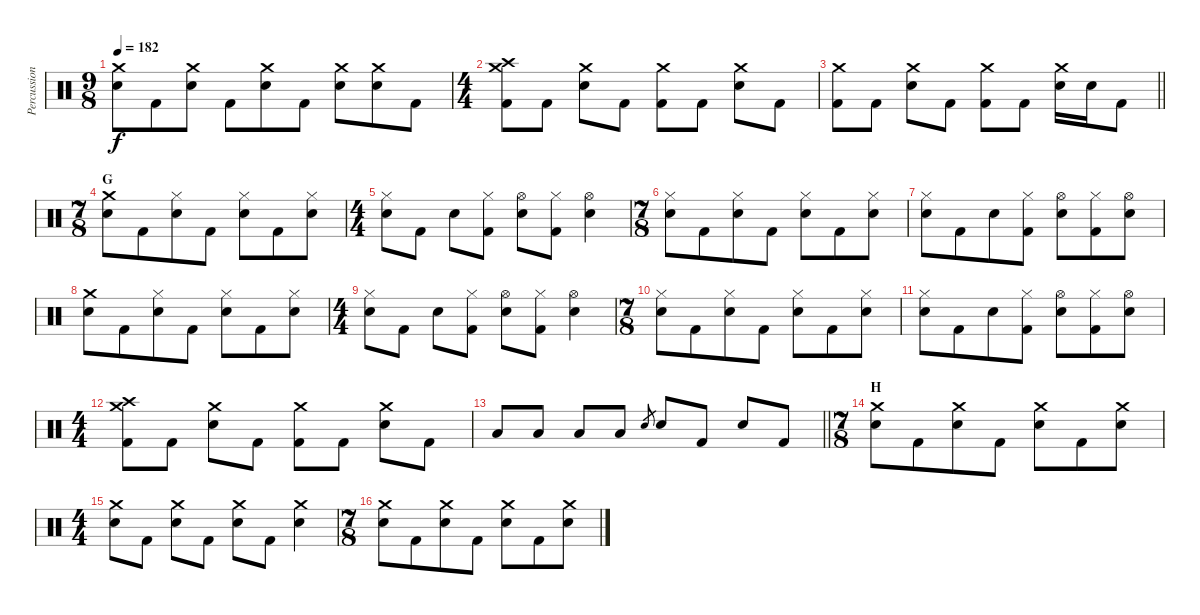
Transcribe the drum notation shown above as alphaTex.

\track ("Percussion" "Percussion") {instrument percussion}
\staff {score}
\articulation defaults
\ts (9 8)
\tempo 182
\clef neutral
\ks c
("Crash medium (hit)" "Electric Snare (hit)").8{dy f} "Kick (hit) 2".8 ("Crash medium (hit)" "Electric Snare (hit)").8 "Kick (hit) 2".8 ("Crash medium (hit)" "Electric Snare (hit)").8 "Kick (hit) 2".8 ("Crash medium (hit)" "Electric Snare (hit)").8 ("Crash medium (hit)" "Electric Snare (hit)").8 "Kick (hit) 2".8 |
\ts (4 4)
("Crash medium (hit)" "Crash high (hit)" "Kick (hit) 2").8 "Kick (hit) 2".8 ("Crash medium (hit)" "Electric Snare (hit)").8 "Kick (hit) 2".8 ("Crash medium (hit)" "Kick (hit) 2").8 "Kick (hit) 2".8 ("Crash medium (hit)" "Electric Snare (hit)").8 "Kick (hit) 2".8 |
\barLineRight lightlight
("Crash medium (hit)" "Kick (hit) 2").8 "Kick (hit) 2".8 ("Crash medium (hit)" "Electric Snare (hit)").8 "Kick (hit) 2".8 ("Crash medium (hit)" "Kick (hit) 2").8 "Kick (hit) 2".8 ("Crash medium (hit)" "Electric Snare (hit)").16 "Electric Snare (hit)".16 "Kick (hit) 2".8 |
\ts (7 8)
\section ("" "G")
("Crash medium (hit)" "Electric Snare (hit)").8 "Kick (hit) 2".8 ("Hi-Hat (closed)" "Electric Snare (hit)").8 "Kick (hit) 2".8 ("Hi-Hat (closed)" "Electric Snare (hit)").8 "Kick (hit) 2".8 ("Hi-Hat (closed)" "Electric Snare (hit)").8 |
\ts (4 4)
("Hi-Hat (closed)" "Electric Snare (hit)").8 "Kick (hit) 2".8 "Electric Snare (hit)".8 ("Hi-Hat (closed)" "Kick (hit) 2").8 ("Hi-Hat (open)" "Electric Snare (hit)").8 ("Hi-Hat (closed)" "Kick (hit) 2").8 ("Hi-Hat (open)" "Electric Snare (hit)").4 |
\ts (7 8)
("Hi-Hat (closed)" "Electric Snare (hit)").8 "Kick (hit) 2".8 ("Hi-Hat (closed)" "Electric Snare (hit)").8 "Kick (hit) 2".8 ("Hi-Hat (closed)" "Electric Snare (hit)").8 "Kick (hit) 2".8 ("Hi-Hat (closed)" "Electric Snare (hit)").8 |
("Hi-Hat (closed)" "Electric Snare (hit)").8 "Kick (hit) 2".8 "Electric Snare (hit)".8 ("Hi-Hat (closed)" "Kick (hit) 2").8 ("Hi-Hat (open)" "Electric Snare (hit)").8 ("Hi-Hat (closed)" "Kick (hit) 2").8 ("Hi-Hat (open)" "Electric Snare (hit)").8 |
("Crash medium (hit)" "Electric Snare (hit)").8 "Kick (hit) 2".8 ("Hi-Hat (closed)" "Electric Snare (hit)").8 "Kick (hit) 2".8 ("Hi-Hat (closed)" "Electric Snare (hit)").8 "Kick (hit) 2".8 ("Hi-Hat (closed)" "Electric Snare (hit)").8 |
\ts (4 4)
("Hi-Hat (closed)" "Electric Snare (hit)").8 "Kick (hit) 2".8 "Electric Snare (hit)".8 ("Hi-Hat (closed)" "Kick (hit) 2").8 ("Hi-Hat (open)" "Electric Snare (hit)").8 ("Hi-Hat (closed)" "Kick (hit) 2").8 ("Hi-Hat (open)" "Electric Snare (hit)").4 |
\ts (7 8)
("Hi-Hat (closed)" "Electric Snare (hit)").8 "Kick (hit) 2".8 ("Hi-Hat (closed)" "Electric Snare (hit)").8 "Kick (hit) 2".8 ("Hi-Hat (closed)" "Electric Snare (hit)").8 "Kick (hit) 2".8 ("Hi-Hat (closed)" "Electric Snare (hit)").8 |
("Hi-Hat (closed)" "Electric Snare (hit)").8 "Kick (hit) 2".8 "Electric Snare (hit)".8 ("Hi-Hat (closed)" "Kick (hit) 2").8 ("Hi-Hat (open)" "Electric Snare (hit)").8 ("Hi-Hat (closed)" "Kick (hit) 2").8 ("Hi-Hat (open)" "Electric Snare (hit)").8 |
\ts (4 4)
("Crash medium (hit)" "Crash high (hit)" "Kick (hit) 2").8 "Kick (hit) 2".8 ("Crash medium (hit)" "Electric Snare (hit)").8 "Kick (hit) 2".8 ("Crash medium (hit)" "Kick (hit) 2").8 "Kick (hit) 2".8 ("Crash medium (hit)" "Electric Snare (hit)").8 "Kick (hit) 2".8 |
\barLineRight lightlight "Low Floor Tom (hit)".8 "Low Floor Tom (hit)".8 "Low Floor Tom (hit)".8 "Low Floor Tom (hit)".8 "Electric Snare (hit)".8{gr} "Electric Snare (hit)".8 "Kick (hit) 2".8 "Electric Snare (hit)".8 "Kick (hit) 2".8
|
\ts (7 8)
\section ("" "H")
("Crash medium (hit)" "Electric Snare (hit)").8 "Kick (hit) 2".8 ("Crash medium (hit)" "Electric Snare (hit)").8 "Kick (hit) 2".8 ("Crash medium (hit)" "Electric Snare (hit)").8 "Kick (hit) 2".8 ("Crash medium (hit)" "Electric Snare (hit)").8 |
\ts (4 4)
("Crash medium (hit)" "Electric Snare (hit)").8 "Kick (hit) 2".8 ("Crash medium (hit)" "Electric Snare (hit)").8 "Kick (hit) 2".8 ("Crash medium (hit)" "Electric Snare (hit)").8 "Kick (hit) 2".8 ("Crash medium (hit)" "Electric Snare (hit)").4 |
\ts (7 8)
("Crash medium (hit)" "Electric Snare (hit)").8 "Kick (hit) 2".8 ("Crash medium (hit)" "Electric Snare (hit)").8 "Kick (hit) 2".8 ("Crash medium (hit)" "Electric Snare (hit)").8 "Kick (hit) 2".8 ("Crash medium (hit)" "Electric Snare (hit)").8
